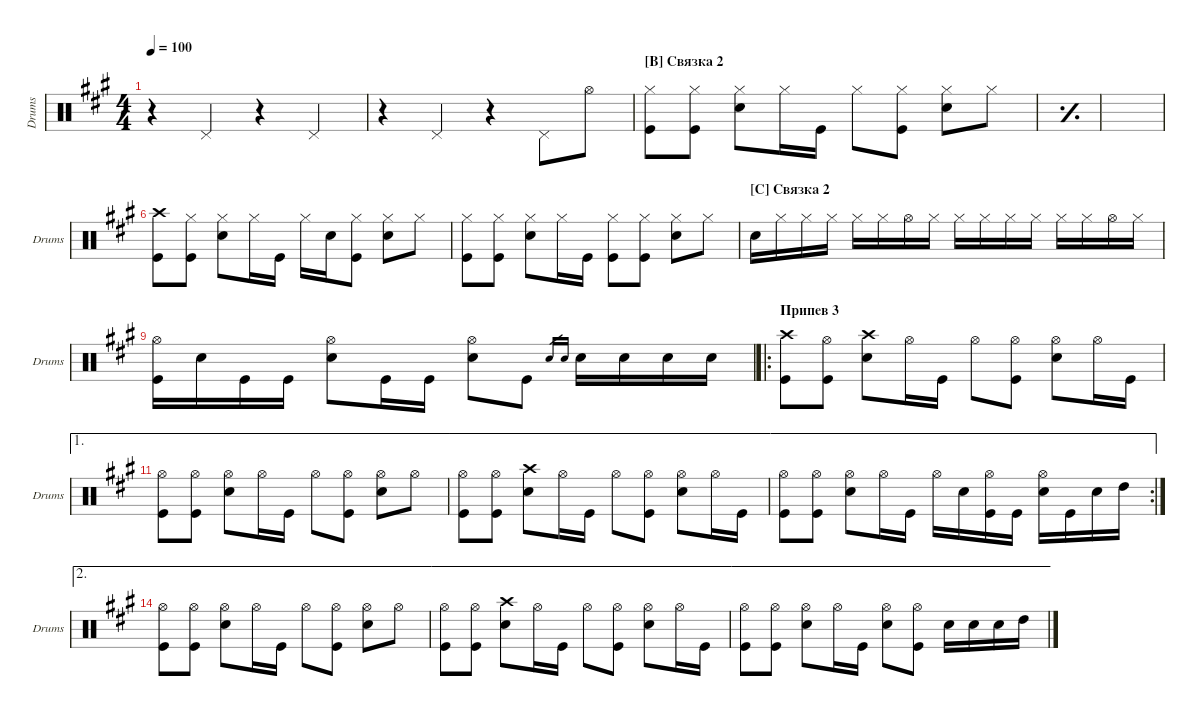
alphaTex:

\defaultSystemsLayout 4
\hideDynamics
\bracketExtendMode groupsimilarinstruments
\singleTrackTrackNamePolicy allsystems
\multiTrackTrackNamePolicy allsystems
\otherSystemsTrackNameOrientation horizontal
\defaultBarNumberDisplay FirstOfSystem
\track ("Drumkit" "Drums") {instrument percussion}
\staff {score}
\articulation defaults
\ts (4 4)
\tempo 100
\clef neutral
\ks f#minor
r.4{dy f} "Pedal Hi-Hat (hit)".4 r.4 "Pedal Hi-Hat (hit)".4 |
r.4 "Pedal Hi-Hat (hit)".4 r.4 "Pedal Hi-Hat (hit)".8 "Hi-Hat (open)".8 |
\section ("B" "Связка 2")
("Kick (hit)" "Hi-Hat (closed)").8 ("Kick (hit)" "Hi-Hat (closed)").8 ("Snare (hit) 2" "Hi-Hat (closed)").8 "Hi-Hat (closed)".16 "Kick (hit)".16 "Hi-Hat (closed)".8 ("Kick (hit)" "Hi-Hat (closed)").8 ("Snare (hit) 2" "Hi-Hat (closed)").8 "Hi-Hat (closed)".8 |
\simile simple
|
|
\simile none
("Kick (hit)" "Crash high (hit)").8 ("Kick (hit)" "Hi-Hat (closed)").8 ("Snare (hit) 2" "Hi-Hat (closed)").8 "Hi-Hat (closed)".16 "Kick (hit)".16 "Hi-Hat (closed)".16 "Snare (hit) 2".16 ("Kick (hit)" "Hi-Hat (closed)").8 ("Snare (hit) 2" "Hi-Hat (closed)").8 "Hi-Hat (closed)".8 |
("Kick (hit)" "Hi-Hat (closed)").8 ("Kick (hit)" "Hi-Hat (closed)").8 ("Snare (hit) 2" "Hi-Hat (closed)").8 "Hi-Hat (closed)".16 "Kick (hit)".16 ("Hi-Hat (closed)" "Kick (hit)").8 ("Kick (hit)" "Hi-Hat (closed)").8 ("Snare (hit) 2" "Hi-Hat (closed)").8 "Hi-Hat (closed)".8 |
\section ("C" "Связка 2")
"Snare (hit) 2".16 "Hi-Hat (closed)".16 "Hi-Hat (closed)".16 "Hi-Hat (closed)".16 "Hi-Hat (closed)".16 "Hi-Hat (closed)".16 "Hi-Hat (open)".16 "Hi-Hat (closed)".16 "Hi-Hat (closed)".16 "Hi-Hat (closed)".16 "Hi-Hat (closed)".16 "Hi-Hat (closed)".16 "Hi-Hat (closed)".16 "Hi-Hat (closed)".16 "Hi-Hat (open)".16 "Hi-Hat (closed)".16 |
("Kick (hit)" "Hi-Hat (open)").16 "Snare (hit) 2".16 "Kick (hit)".16 "Kick (hit)".16 ("Snare (hit) 2" "Hi-Hat (open)").8 "Kick (hit)".16 "Kick (hit)".16 ("Snare (hit) 2" "Hi-Hat (open)").8 "Kick (hit)".8 "Snare (hit) 2".16{gr} "Snare (hit) 2".16{gr} "Snare (hit) 2".16 "Snare (hit) 2".16 "Snare (hit) 2".16 "Snare (hit) 2".16 |
\ro
\section ("" "Припев 3")
("Kick (hit)" "Crash high (hit)").8 ("Kick (hit)" "Hi-Hat (open)").8 ("Snare (hit) 2" "Crash high (hit)").8 "Hi-Hat (open)".16 "Kick (hit)".16 "Hi-Hat (open)".8 ("Kick (hit)" "Hi-Hat (open)").8 ("Snare (hit) 2" "Hi-Hat (open)").8 "Hi-Hat (open)".16 "Kick (hit)".16 |
\ae 1
("Kick (hit)" "Hi-Hat (open)").8 ("Kick (hit)" "Hi-Hat (open)").8 ("Snare (hit) 2" "Hi-Hat (open)").8 "Hi-Hat (open)".16 "Kick (hit)".16 "Hi-Hat (open)".8 ("Kick (hit)" "Hi-Hat (open)").8 ("Snare (hit) 2" "Hi-Hat (open)").8 "Hi-Hat (open)".8 |
\ae 1
("Kick (hit)" "Hi-Hat (open)").8 ("Kick (hit)" "Hi-Hat (open)").8 ("Snare (hit) 2" "Crash high (hit)").8 "Hi-Hat (open)".16 "Kick (hit)".16 "Hi-Hat (open)".8 ("Kick (hit)" "Hi-Hat (open)").8 ("Snare (hit) 2" "Hi-Hat (open)").8 "Hi-Hat (open)".16 "Kick (hit)".16 |
\ae 1
\rc 2
("Kick (hit)" "Hi-Hat (open)").8 ("Kick (hit)" "Hi-Hat (open)").8 ("Snare (hit) 2" "Hi-Hat (open)").8 "Hi-Hat (open)".16 "Kick (hit)".16 "Hi-Hat (open)".16 "Snare (hit) 2".16 ("Kick (hit)" "Hi-Hat (open)").16 "Kick (hit)".16 ("Snare (hit) 2" "Hi-Hat (open)").16 "Kick (hit)".16 "Snare (hit) 2".16 "High Tom (hit)".16 |
\ae 2
("Kick (hit)" "Hi-Hat (open)").8 ("Kick (hit)" "Hi-Hat (open)").8 ("Snare (hit) 2" "Hi-Hat (open)").8 "Hi-Hat (open)".16 "Kick (hit)".16 "Hi-Hat (open)".8 ("Kick (hit)" "Hi-Hat (open)").8 ("Snare (hit) 2" "Hi-Hat (open)").8 "Hi-Hat (open)".8 |
\ae 2
("Kick (hit)" "Hi-Hat (open)").8 ("Kick (hit)" "Hi-Hat (open)").8 ("Snare (hit) 2" "Crash high (hit)").8 "Hi-Hat (open)".16 "Kick (hit)".16 "Hi-Hat (open)".8 ("Kick (hit)" "Hi-Hat (open)").8 ("Snare (hit) 2" "Hi-Hat (open)").8 "Hi-Hat (open)".16 "Kick (hit)".16 |
\ae 2
("Kick (hit)" "Hi-Hat (open)").8 ("Kick (hit)" "Hi-Hat (open)").8 ("Snare (hit) 2" "Hi-Hat (open)").8 "Hi-Hat (open)".16 "Kick (hit)".16 ("Hi-Hat (open)" "Snare (hit) 2").8 ("Kick (hit)" "Hi-Hat (open)").8 "Snare (hit) 2".16 "Snare (hit) 2".16 "Snare (hit) 2".16 "High Tom (hit)".16
